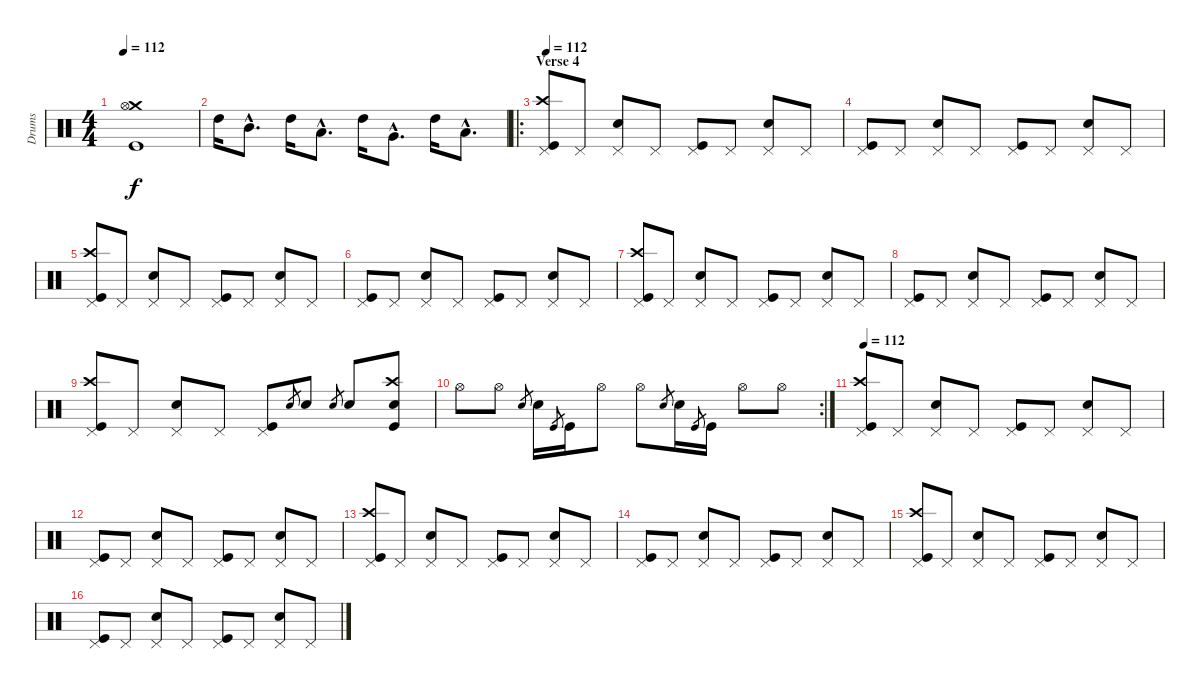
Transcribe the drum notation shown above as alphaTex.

\track ("Drums" "Drums") {instrument percussion}
\staff {score}
\articulation defaults
\ts (4 4)
\tempo 112
\clef neutral
\ks c
("Crash medium (hit)" "Hi-Hat (open)" "Kick (hit)").1{dy f} |
"High Tom (hit)".16 "Mid Tom (hit)"{hac}.8{d} "High Tom (hit)".16 "Low Tom (hit)"{hac}.8{d} "High Tom (hit)".16 "Very Low Tom (hit)"{hac}.8{d} "High Tom (hit)".16 "Low Floor Tom (hit)"{hac}.8{d} |
\ro
\section ("" "Verse 4")
\tempo 112
("Crash high (hit)" "Pedal Hi-Hat (hit)" "Kick (hit)").8 "Pedal Hi-Hat (hit)".8 ("Pedal Hi-Hat (hit)" "Snare (hit) 2").8 "Pedal Hi-Hat (hit)".8 ("Pedal Hi-Hat (hit)" "Kick (hit)").8 "Pedal Hi-Hat (hit)".8 ("Pedal Hi-Hat (hit)" "Snare (hit) 2").8 "Pedal Hi-Hat (hit)".8 |
("Pedal Hi-Hat (hit)" "Kick (hit)").8 "Pedal Hi-Hat (hit)".8 ("Pedal Hi-Hat (hit)" "Snare (hit) 2").8 "Pedal Hi-Hat (hit)".8 ("Pedal Hi-Hat (hit)" "Kick (hit)").8 "Pedal Hi-Hat (hit)".8 ("Pedal Hi-Hat (hit)" "Snare (hit) 2").8 "Pedal Hi-Hat (hit)".8 |
("Crash high (hit)" "Pedal Hi-Hat (hit)" "Kick (hit)").8 "Pedal Hi-Hat (hit)".8 ("Pedal Hi-Hat (hit)" "Snare (hit) 2").8 "Pedal Hi-Hat (hit)".8 ("Pedal Hi-Hat (hit)" "Kick (hit)").8 "Pedal Hi-Hat (hit)".8 ("Pedal Hi-Hat (hit)" "Snare (hit) 2").8 "Pedal Hi-Hat (hit)".8 |
("Pedal Hi-Hat (hit)" "Kick (hit)").8 "Pedal Hi-Hat (hit)".8 ("Pedal Hi-Hat (hit)" "Snare (hit) 2").8 "Pedal Hi-Hat (hit)".8 ("Pedal Hi-Hat (hit)" "Kick (hit)").8 "Pedal Hi-Hat (hit)".8 ("Pedal Hi-Hat (hit)" "Snare (hit) 2").8 "Pedal Hi-Hat (hit)".8 |
("Crash high (hit)" "Pedal Hi-Hat (hit)" "Kick (hit)").8 "Pedal Hi-Hat (hit)".8 ("Pedal Hi-Hat (hit)" "Snare (hit) 2").8 "Pedal Hi-Hat (hit)".8 ("Pedal Hi-Hat (hit)" "Kick (hit)").8 "Pedal Hi-Hat (hit)".8 ("Pedal Hi-Hat (hit)" "Snare (hit) 2").8 "Pedal Hi-Hat (hit)".8 |
("Pedal Hi-Hat (hit)" "Kick (hit)").8 "Pedal Hi-Hat (hit)".8 ("Pedal Hi-Hat (hit)" "Snare (hit) 2").8 "Pedal Hi-Hat (hit)".8 ("Pedal Hi-Hat (hit)" "Kick (hit)").8 "Pedal Hi-Hat (hit)".8 ("Pedal Hi-Hat (hit)" "Snare (hit) 2").8 "Pedal Hi-Hat (hit)".8 |
("Crash high (hit)" "Pedal Hi-Hat (hit)" "Kick (hit)").8 "Pedal Hi-Hat (hit)".8 ("Pedal Hi-Hat (hit)" "Snare (hit) 2").8 "Pedal Hi-Hat (hit)".8 ("Pedal Hi-Hat (hit)" "Kick (hit)").8 "Snare (hit) 2".8{gr} "Snare (hit) 2".8 "Snare (hit) 2".8{gr} "Snare (hit) 2".8 ("Crash high (hit)" "Snare (hit) 2" "Kick (hit)").8 |
\rc 2 "Hi-Hat (open)".8 "Hi-Hat (open)".8 "Snare (hit) 2".8{gr} "Snare (hit) 2".16 "Kick (hit)".8{gr} "Kick (hit)".16 "Hi-Hat (open)".8 "Hi-Hat (open)".8 "Snare (hit) 2".8{gr} "Snare (hit) 2".16 "Kick (hit)".8{gr} "Kick (hit)".16 "Hi-Hat (open)".8 "Hi-Hat (open)".8
|
\tempo 112
("Crash high (hit)" "Pedal Hi-Hat (hit)" "Kick (hit)").8{volume 16} "Pedal Hi-Hat (hit)".8 ("Pedal Hi-Hat (hit)" "Snare (hit) 2").8 "Pedal Hi-Hat (hit)".8 ("Pedal Hi-Hat (hit)" "Kick (hit)").8 "Pedal Hi-Hat (hit)".8 ("Pedal Hi-Hat (hit)" "Snare (hit) 2").8 "Pedal Hi-Hat (hit)".8 |
("Pedal Hi-Hat (hit)" "Kick (hit)").8 "Pedal Hi-Hat (hit)".8 ("Pedal Hi-Hat (hit)" "Snare (hit) 2").8 "Pedal Hi-Hat (hit)".8 ("Pedal Hi-Hat (hit)" "Kick (hit)").8 "Pedal Hi-Hat (hit)".8 ("Pedal Hi-Hat (hit)" "Snare (hit) 2").8 "Pedal Hi-Hat (hit)".8 |
("Crash high (hit)" "Pedal Hi-Hat (hit)" "Kick (hit)").8 "Pedal Hi-Hat (hit)".8 ("Pedal Hi-Hat (hit)" "Snare (hit) 2").8 "Pedal Hi-Hat (hit)".8 ("Pedal Hi-Hat (hit)" "Kick (hit)").8 "Pedal Hi-Hat (hit)".8 ("Pedal Hi-Hat (hit)" "Snare (hit) 2").8 "Pedal Hi-Hat (hit)".8 |
("Pedal Hi-Hat (hit)" "Kick (hit)").8 "Pedal Hi-Hat (hit)".8 ("Pedal Hi-Hat (hit)" "Snare (hit) 2").8 "Pedal Hi-Hat (hit)".8 ("Pedal Hi-Hat (hit)" "Kick (hit)").8 "Pedal Hi-Hat (hit)".8 ("Pedal Hi-Hat (hit)" "Snare (hit) 2").8 "Pedal Hi-Hat (hit)".8 |
("Crash high (hit)" "Pedal Hi-Hat (hit)" "Kick (hit)").8 "Pedal Hi-Hat (hit)".8 ("Pedal Hi-Hat (hit)" "Snare (hit) 2").8 "Pedal Hi-Hat (hit)".8 ("Pedal Hi-Hat (hit)" "Kick (hit)").8 "Pedal Hi-Hat (hit)".8 ("Pedal Hi-Hat (hit)" "Snare (hit) 2").8 "Pedal Hi-Hat (hit)".8 |
("Pedal Hi-Hat (hit)" "Kick (hit)").8 "Pedal Hi-Hat (hit)".8 ("Pedal Hi-Hat (hit)" "Snare (hit) 2").8 "Pedal Hi-Hat (hit)".8 ("Pedal Hi-Hat (hit)" "Kick (hit)").8 "Pedal Hi-Hat (hit)".8 ("Pedal Hi-Hat (hit)" "Snare (hit) 2").8 "Pedal Hi-Hat (hit)".8
